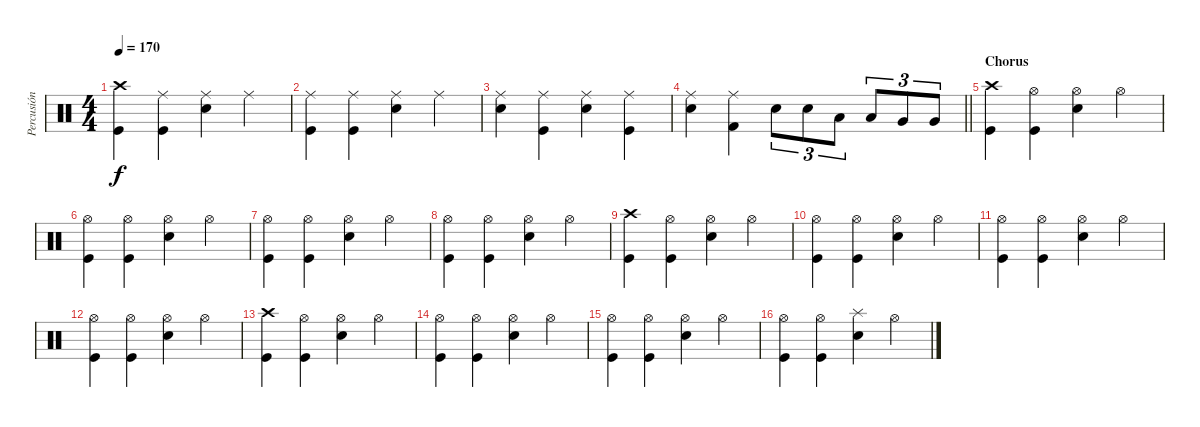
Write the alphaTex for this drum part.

\track ("Percusión" "Percusión") {instrument percussion}
\staff {score}
\articulation defaults
\ts (4 4)
\tempo 170
\clef neutral
\ks c
("Crash high (hit)" "Kick (hit)").4{dy f} ("Ride (middle)" "Kick (hit)").4 ("Ride (middle)" "Electric Snare (hit)").4 "Ride (middle)".4 |
("Ride (middle)" "Kick (hit)").4 ("Ride (middle)" "Kick (hit)").4 ("Ride (middle)" "Electric Snare (hit)").4 "Ride (middle)".4 |
("Ride (middle)" "Electric Snare (hit)").4 ("Ride (middle)" "Kick (hit)").4 ("Ride (middle)" "Electric Snare (hit)").4 ("Ride (middle)" "Kick (hit)").4 |
\barLineRight lightlight
("Ride (middle)" "Electric Snare (hit)").4 ("Ride (middle)" "Kick (hit) 2").4 "Electric Snare (hit)".8{tu (3 2)} "Electric Snare (hit)".8{tu (3 2)} "Low Tom (hit)".8{tu (3 2)} "Low Tom (hit)".8{tu (3 2)} "Very Low Tom (hit)".8{tu (3 2)} "Very Low Tom (hit)".8{tu (3 2)} |
\section ("" "Chorus")
("Crash high (hit)" "Kick (hit)").4 ("Hi-Hat (open)" "Kick (hit)").4 ("Hi-Hat (open)" "Electric Snare (hit)").4 "Hi-Hat (open)".4 |
("Hi-Hat (open)" "Kick (hit)").4 ("Hi-Hat (open)" "Kick (hit)").4 ("Hi-Hat (open)" "Electric Snare (hit)").4 "Hi-Hat (open)".4 |
("Hi-Hat (open)" "Kick (hit)").4 ("Hi-Hat (open)" "Kick (hit)").4 ("Hi-Hat (open)" "Electric Snare (hit)").4 "Hi-Hat (open)".4 |
("Hi-Hat (open)" "Kick (hit)").4 ("Hi-Hat (open)" "Kick (hit)").4 ("Hi-Hat (open)" "Electric Snare (hit)").4 "Hi-Hat (open)".4 |
("Crash high (hit)" "Kick (hit)").4 ("Hi-Hat (open)" "Kick (hit)").4 ("Hi-Hat (open)" "Electric Snare (hit)").4 "Hi-Hat (open)".4 |
("Hi-Hat (open)" "Kick (hit)").4 ("Hi-Hat (open)" "Kick (hit)").4 ("Hi-Hat (open)" "Electric Snare (hit)").4 "Hi-Hat (open)".4 |
("Hi-Hat (open)" "Kick (hit)").4 ("Hi-Hat (open)" "Kick (hit)").4 ("Hi-Hat (open)" "Electric Snare (hit)").4 "Hi-Hat (open)".4 |
("Hi-Hat (open)" "Kick (hit)").4 ("Hi-Hat (open)" "Kick (hit)").4 ("Hi-Hat (open)" "Electric Snare (hit)").4 "Hi-Hat (open)".4 |
("Crash high (hit)" "Kick (hit)").4 ("Hi-Hat (open)" "Kick (hit)").4 ("Hi-Hat (open)" "Electric Snare (hit)").4 "Hi-Hat (open)".4 |
("Hi-Hat (open)" "Kick (hit)").4 ("Hi-Hat (open)" "Kick (hit)").4 ("Hi-Hat (open)" "Electric Snare (hit)").4 "Hi-Hat (open)".4 |
("Hi-Hat (open)" "Kick (hit)").4 ("Hi-Hat (open)" "Kick (hit)").4 ("Hi-Hat (open)" "Electric Snare (hit)").4 "Hi-Hat (open)".4 |
("Hi-Hat (open)" "Kick (hit)").4 ("Hi-Hat (open)" "Kick (hit)").4 ("Splash (hit)" "Electric Snare (hit)").4 "Hi-Hat (open)".4
